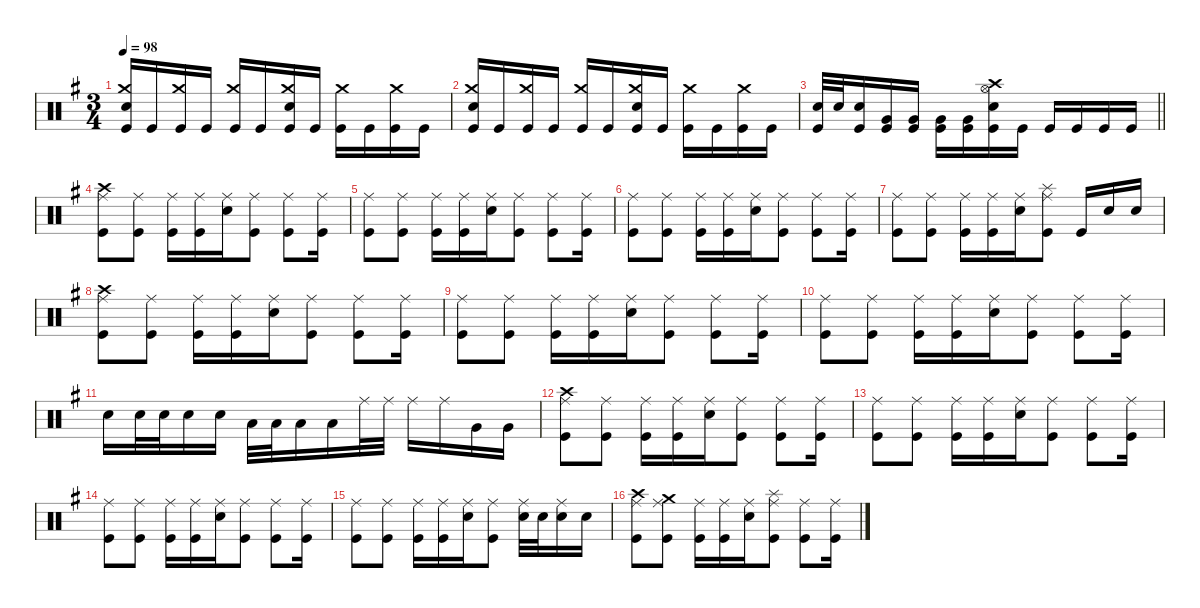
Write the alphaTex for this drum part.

\defaultSystemsLayout 4
\hideDynamics
\bracketExtendMode nobrackets
\singleTrackTrackNamePolicy hidden
\multiTrackTrackNamePolicy hidden
\firstSystemTrackNameMode fullname
\otherSystemsTrackNameOrientation horizontal
\track ("Drums" "drm.") {instrument percussion}
\staff {score}
\articulation defaults
\ts (3 4)
\tempo 98
\clef neutral
\ks eminor
("Crash medium (hit)"{acc forcenatural} "Snare (hit) 2"{acc forcenatural} "Kick (hit)"{acc forcenatural}).16{dy mf beam Up} "Kick (hit)"{acc forcenatural}.16{dy f beam Up} ("Crash medium (hit)"{acc forcenatural} "Kick (hit)"{acc forcenatural}).16{dy mf beam Up} "Kick (hit)"{acc forcenatural}.16{dy f beam Up} ("Crash medium (hit)"{acc forcenatural} "Kick (hit)"{acc forcenatural}).16{dy mf beam Up} "Kick (hit)"{acc forcenatural}.16{dy f beam Up} ("Crash medium (hit)"{acc forcenatural} "Snare (hit) 2"{acc forcenatural} "Kick (hit)"{acc forcenatural}).16{dy mf beam Up} "Kick (hit)"{acc forcenatural}.16{dy f beam Up} ("Crash medium (hit)"{acc forcenatural} "Kick (hit)"{acc forcenatural}).16{dy mf beam Down} "Kick (hit)"{acc forcenatural}.16{dy f beam Down} ("Crash medium (hit)"{acc forcenatural} "Kick (hit)"{acc forcenatural}).16{dy mf beam Down} "Kick (hit)"{acc forcenatural}.16{dy f beam Down} |
("Crash medium (hit)"{acc forcenatural} "Snare (hit) 2"{acc forcenatural} "Kick (hit)"{acc forcenatural}).16{dy mf beam Up} "Kick (hit)"{acc forcenatural}.16{dy f beam Up} ("Crash medium (hit)"{acc forcenatural} "Kick (hit)"{acc forcenatural}).16{dy mf beam Up} "Kick (hit)"{acc forcenatural}.16{dy f beam Up} ("Crash medium (hit)"{acc forcenatural} "Kick (hit)"{acc forcenatural}).16{dy mf beam Up} "Kick (hit)"{acc forcenatural}.16{dy f beam Up} ("Crash medium (hit)"{acc forcenatural} "Snare (hit) 2"{acc forcenatural} "Kick (hit)"{acc forcenatural}).16{dy mf beam Up} "Kick (hit)"{acc forcenatural}.16{dy f beam Up} ("Crash medium (hit)"{acc forcenatural} "Kick (hit)"{acc forcenatural}).16{dy mf beam Down} "Kick (hit)"{acc forcenatural}.16{dy f beam Down} ("Crash medium (hit)"{acc forcenatural} "Kick (hit)"{acc forcenatural}).16{dy mf beam Down} "Kick (hit)"{acc forcenatural}.16{dy f beam Down} |
\barLineRight lightlight
("Snare (hit) 2"{acc forcenatural} "Kick (hit)"{acc forcenatural}).32{beam Up} "Snare (hit) 2"{acc forcenatural}.32{beam Up} ("Snare (hit) 2"{acc forcenatural} "Kick (hit)"{acc forcenatural}).16{beam Up} ("Very Low Tom (hit)"{acc forcenatural} "Kick (hit)"{acc forcenatural}).16{beam Up} ("Very Low Tom (hit)"{acc forcenatural} "Kick (hit)"{acc forcenatural}).16{beam Up} ("Very Low Tom (hit)"{acc forcenatural} "Kick (hit)"{acc forcenatural}).16{beam Down} ("Very Low Tom (hit)"{acc forcenatural} "Kick (hit)"{acc forcenatural}).16{beam Down} ("Crash high (hit)"{acc forcenatural} "Hi-Hat (open)"{acc forcenatural} "Snare (hit) 2"{acc forcenatural} "Kick (hit)"{acc forcenatural}).16{beam Down} "Kick (hit)"{acc forcenatural}.16{beam Down} "Kick (hit)"{acc forcenatural}.16{beam Up} "Kick (hit)"{acc forcenatural}.16{beam Up} "Kick (hit)"{acc forcenatural}.16{beam Up} "Kick (hit)"{acc forcenatural}.16{beam Up} |
("Crash high (hit)"{acc forcenatural} "Ride (middle)"{acc forcenatural} "Kick (hit)"{acc forcenatural}).8{beam Down} ("Ride (middle)"{acc forcenatural} "Kick (hit)"{acc forcenatural}).8{beam Down} ("Ride (middle)"{acc forcenatural} "Kick (hit)"{acc forcenatural}).16{beam Down} ("Ride (middle)"{acc forcenatural} "Kick (hit)"{acc forcenatural}).16{beam Down} ("Ride (middle)"{acc forcenatural} "Snare (hit) 2"{acc forcenatural}).16{beam Down} ("Ride (middle)"{acc forcenatural} "Kick (hit)"{acc forcenatural}).8{beam Down} ("Ride (middle)"{acc forcenatural} "Kick (hit)"{acc forcenatural}).8{beam Down} ("Ride (middle)"{acc forcenatural} "Kick (hit)"{acc forcenatural}).16{beam Down} |
("Ride (middle)"{acc forcenatural} "Kick (hit)"{acc forcenatural}).8{beam Down} ("Ride (middle)"{acc forcenatural} "Kick (hit)"{acc forcenatural}).8{beam Down} ("Ride (middle)"{acc forcenatural} "Kick (hit)"{acc forcenatural}).16{beam Down} ("Ride (middle)"{acc forcenatural} "Kick (hit)"{acc forcenatural}).16{beam Down} ("Ride (middle)"{acc forcenatural} "Snare (hit) 2"{acc forcenatural}).16{beam Down} ("Ride (middle)"{acc forcenatural} "Kick (hit)"{acc forcenatural}).8{beam Down} ("Ride (middle)"{acc forcenatural} "Kick (hit)"{acc forcenatural}).8{beam Down} ("Ride (middle)"{acc forcenatural} "Kick (hit)"{acc forcenatural}).16{beam Down} |
("Ride (middle)"{acc forcenatural} "Kick (hit)"{acc forcenatural}).8{beam Down} ("Ride (middle)"{acc forcenatural} "Kick (hit)"{acc forcenatural}).8{beam Down} ("Ride (middle)"{acc forcenatural} "Kick (hit)"{acc forcenatural}).16{beam Down} ("Ride (middle)"{acc forcenatural} "Kick (hit)"{acc forcenatural}).16{beam Down} ("Ride (middle)"{acc forcenatural} "Snare (hit) 2"{acc forcenatural}).16{beam Down} ("Ride (middle)"{acc forcenatural} "Kick (hit)"{acc forcenatural}).8{beam Down} ("Ride (middle)"{acc forcenatural} "Kick (hit)"{acc forcenatural}).8{beam Down} ("Ride (middle)"{acc forcenatural} "Kick (hit)"{acc forcenatural}).16{beam Down} |
("Ride (middle)"{acc forcenatural} "Kick (hit)"{acc forcenatural}).8{beam Down} ("Ride (middle)"{acc forcenatural} "Kick (hit)"{acc forcenatural}).8{beam Down} ("Ride (middle)"{acc forcenatural} "Kick (hit)"{acc forcenatural}).16{beam Down} ("Ride (middle)"{acc forcenatural} "Kick (hit)"{acc forcenatural}).16{beam Down} ("Ride (middle)"{acc forcenatural} "Snare (hit) 2"{acc forcenatural}).16{beam Down} ("Splash (hit)"{acc forcenatural} "Ride (middle)"{acc forcenatural} "Kick (hit)"{acc forcenatural}).8{beam Down} "Kick (hit)"{acc forcenatural}.16{beam Up} "Snare (hit) 2"{acc forcenatural}.16{beam Up} "Snare (hit) 2"{acc forcenatural}.16{beam Up} |
("Crash high (hit)"{acc forcenatural} "Ride (middle)"{acc forcenatural} "Kick (hit)"{acc forcenatural}).8{beam Down} ("Ride (middle)"{acc forcenatural} "Kick (hit)"{acc forcenatural}).8{beam Down} ("Ride (middle)"{acc forcenatural} "Kick (hit)"{acc forcenatural}).16{beam Down} ("Ride (middle)"{acc forcenatural} "Kick (hit)"{acc forcenatural}).16{beam Down} ("Ride (middle)"{acc forcenatural} "Snare (hit) 2"{acc forcenatural}).16{beam Down} ("Ride (middle)"{acc forcenatural} "Kick (hit)"{acc forcenatural}).8{beam Down} ("Ride (middle)"{acc forcenatural} "Kick (hit)"{acc forcenatural}).8{beam Down} ("Ride (middle)"{acc forcenatural} "Kick (hit)"{acc forcenatural}).16{beam Down} |
("Ride (middle)"{acc forcenatural} "Kick (hit)"{acc forcenatural}).8{beam Down} ("Ride (middle)"{acc forcenatural} "Kick (hit)"{acc forcenatural}).8{beam Down} ("Ride (middle)"{acc forcenatural} "Kick (hit)"{acc forcenatural}).16{beam Down} ("Ride (middle)"{acc forcenatural} "Kick (hit)"{acc forcenatural}).16{beam Down} ("Ride (middle)"{acc forcenatural} "Snare (hit) 2"{acc forcenatural}).16{beam Down} ("Ride (middle)"{acc forcenatural} "Kick (hit)"{acc forcenatural}).8{beam Down} ("Ride (middle)"{acc forcenatural} "Kick (hit)"{acc forcenatural}).8{beam Down} ("Ride (middle)"{acc forcenatural} "Kick (hit)"{acc forcenatural}).16{beam Down} |
("Ride (middle)"{acc forcenatural} "Kick (hit)"{acc forcenatural}).8{beam Down} ("Ride (middle)"{acc forcenatural} "Kick (hit)"{acc forcenatural}).8{beam Down} ("Ride (middle)"{acc forcenatural} "Kick (hit)"{acc forcenatural}).16{beam Down} ("Ride (middle)"{acc forcenatural} "Kick (hit)"{acc forcenatural}).16{beam Down} ("Ride (middle)"{acc forcenatural} "Snare (hit) 2"{acc forcenatural}).16{beam Down} ("Ride (middle)"{acc forcenatural} "Kick (hit)"{acc forcenatural}).8{beam Down} ("Ride (middle)"{acc forcenatural} "Kick (hit)"{acc forcenatural}).8{beam Down} ("Ride (middle)"{acc forcenatural} "Kick (hit)"{acc forcenatural}).16{beam Down} |
"Snare (hit) 2"{acc forcenatural}.16{beam Down} "Snare (hit) 2"{acc forcenatural}.32{beam Down} "Snare (hit) 2"{acc forcenatural}.32{beam Down} "Snare (hit) 2"{acc forcenatural}.16{beam Down} "Snare (hit) 2"{acc forcenatural}.16{beam Down} "Low Tom (hit)"{acc forcenatural}.32{beam Down} "Low Tom (hit)"{acc forcenatural}.32{beam Down} "Low Tom (hit)"{acc forcenatural}.16{beam Down} "Low Tom (hit)"{acc forcenatural}.16{beam Down} "Ride (middle)"{acc forcenatural}.32{beam Down} "Ride (middle)"{acc forcenatural}.32{beam Down} "Ride (middle)"{acc forcenatural}.16{beam Down} "Ride (middle)"{acc forcenatural}.16{beam Down} "Very Low Tom (hit)"{acc forcenatural}.16{beam Down} "Very Low Tom (hit)"{acc forcenatural}.16{beam Down} |
("Crash high (hit)"{acc forcenatural} "Ride (middle)"{acc forcenatural} "Kick (hit)"{acc forcenatural}).8{beam Down} ("Ride (middle)"{acc forcenatural} "Kick (hit)"{acc forcenatural}).8{beam Down} ("Ride (middle)"{acc forcenatural} "Kick (hit)"{acc forcenatural}).16{beam Down} ("Ride (middle)"{acc forcenatural} "Kick (hit)"{acc forcenatural}).16{beam Down} ("Ride (middle)"{acc forcenatural} "Snare (hit) 2"{acc forcenatural}).16{beam Down} ("Ride (middle)"{acc forcenatural} "Kick (hit)"{acc forcenatural}).8{beam Down} ("Ride (middle)"{acc forcenatural} "Kick (hit)"{acc forcenatural}).8{beam Down} ("Ride (middle)"{acc forcenatural} "Kick (hit)"{acc forcenatural}).16{beam Down} |
("Ride (middle)"{acc forcenatural} "Kick (hit)"{acc forcenatural}).8{beam Down} ("Ride (middle)"{acc forcenatural} "Kick (hit)"{acc forcenatural}).8{beam Down} ("Ride (middle)"{acc forcenatural} "Kick (hit)"{acc forcenatural}).16{beam Down} ("Ride (middle)"{acc forcenatural} "Kick (hit)"{acc forcenatural}).16{beam Down} ("Ride (middle)"{acc forcenatural} "Snare (hit) 2"{acc forcenatural}).16{beam Down} ("Ride (middle)"{acc forcenatural} "Kick (hit)"{acc forcenatural}).8{beam Down} ("Ride (middle)"{acc forcenatural} "Kick (hit)"{acc forcenatural}).8{beam Down} ("Ride (middle)"{acc forcenatural} "Kick (hit)"{acc forcenatural}).16{beam Down} |
("Ride (middle)"{acc forcenatural} "Kick (hit)"{acc forcenatural}).8{beam Down} ("Ride (middle)"{acc forcenatural} "Kick (hit)"{acc forcenatural}).8{beam Down} ("Ride (middle)"{acc forcenatural} "Kick (hit)"{acc forcenatural}).16{beam Down} ("Ride (middle)"{acc forcenatural} "Kick (hit)"{acc forcenatural}).16{beam Down} ("Ride (middle)"{acc forcenatural} "Snare (hit) 2"{acc forcenatural}).16{beam Down} ("Ride (middle)"{acc forcenatural} "Kick (hit)"{acc forcenatural}).8{beam Down} ("Ride (middle)"{acc forcenatural} "Kick (hit)"{acc forcenatural}).8{beam Down} ("Ride (middle)"{acc forcenatural} "Kick (hit)"{acc forcenatural}).16{beam Down} |
("Ride (middle)"{acc forcenatural} "Kick (hit)"{acc forcenatural}).8{beam Down} ("Ride (middle)"{acc forcenatural} "Kick (hit)"{acc forcenatural}).8{beam Down} ("Ride (middle)"{acc forcenatural} "Kick (hit)"{acc forcenatural}).16{beam Down} ("Ride (middle)"{acc forcenatural} "Kick (hit)"{acc forcenatural}).16{beam Down} ("Ride (middle)"{acc forcenatural} "Snare (hit) 2"{acc forcenatural}).16{beam Down} ("Ride (middle)"{acc forcenatural} "Kick (hit)"{acc forcenatural}).8{beam Down} ("Ride (middle)"{acc forcenatural} "Snare (hit) 2"{acc forcenatural}).32{beam Down} "Snare (hit) 2"{acc forcenatural}.32{beam Down} ("Ride (middle)"{acc forcenatural} "Snare (hit) 2"{acc forcenatural}).16{beam Down} "Snare (hit) 2"{acc forcenatural}.16{beam Down} |
("Crash high (hit)"{acc forcenatural} "Ride (middle)"{acc forcenatural} "Kick (hit)"{acc forcenatural}).8{beam Down} ("Crash medium (hit)"{acc forcenatural} "Ride (middle)"{acc forcenatural} "Kick (hit)"{acc forcenatural}).8{beam Down} ("Ride (middle)"{acc forcenatural} "Kick (hit)"{acc forcenatural}).16{beam Down} ("Ride (middle)"{acc forcenatural} "Kick (hit)"{acc forcenatural}).16{beam Down} ("Ride (middle)"{acc forcenatural} "Snare (hit) 2"{acc forcenatural}).16{beam Down} ("Splash (hit)"{acc forcenatural} "Ride (middle)"{acc forcenatural} "Kick (hit)"{acc forcenatural}).8{beam Down} ("Ride (middle)"{acc forcenatural} "Kick (hit)"{acc forcenatural}).8{beam Down} ("Ride (middle)"{acc forcenatural} "Kick (hit)"{acc forcenatural}).16{beam Down}
